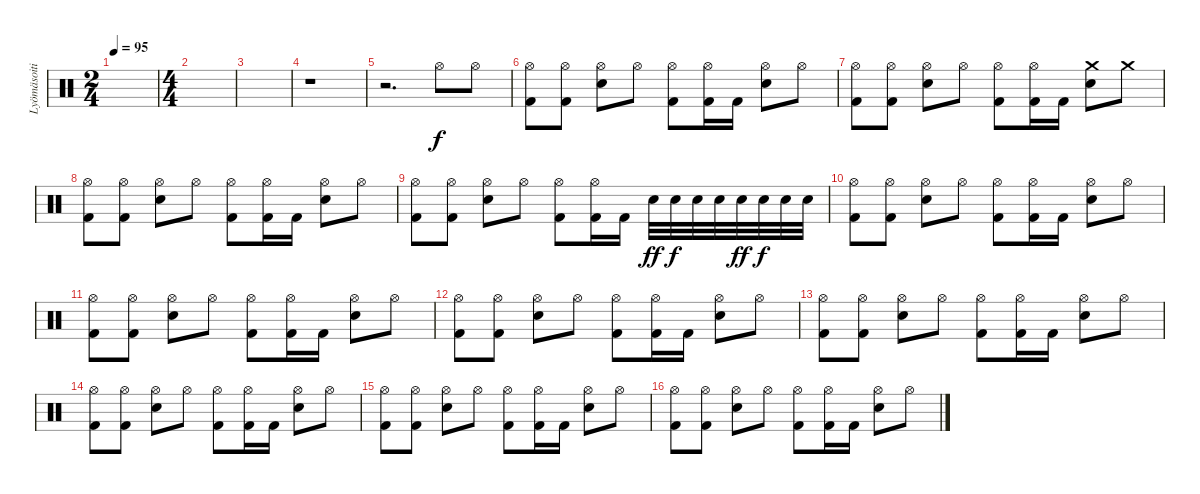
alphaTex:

\track ("Lyömäsoitin" "Lyömäsoiti") {instrument percussion}
\staff {score}
\articulation defaults
\ts (2 4)
\tempo 95
\clef neutral
\ks c
|
\ts (4 4)
|
|
r.1 |
r.2{d} "Hi-Hat (open)".8 "Hi-Hat (open)".8 |
("Hi-Hat (open)" "Kick (hit) 2").8 ("Hi-Hat (open)" "Kick (hit) 2").8 ("Hi-Hat (open)" "Electric Snare (hit)").8 "Hi-Hat (open)".8 ("Hi-Hat (open)" "Kick (hit) 2").8 ("Hi-Hat (open)" "Kick (hit) 2").16 "Kick (hit) 2".16 ("Hi-Hat (open)" "Electric Snare (hit)").8 "Hi-Hat (open)".8 |
("Hi-Hat (open)" "Kick (hit) 2").8 ("Hi-Hat (open)" "Kick (hit) 2").8 ("Hi-Hat (open)" "Electric Snare (hit)").8 "Hi-Hat (open)".8 ("Hi-Hat (open)" "Kick (hit) 2").8 ("Hi-Hat (open)" "Kick (hit) 2").16 "Kick (hit) 2".16 ("Crash medium (hit)" "Electric Snare (hit)").8 "Crash medium (hit)".8 |
("Hi-Hat (open)" "Kick (hit) 2").8 ("Hi-Hat (open)" "Kick (hit) 2").8 ("Hi-Hat (open)" "Electric Snare (hit)").8 "Hi-Hat (open)".8 ("Hi-Hat (open)" "Kick (hit) 2").8 ("Hi-Hat (open)" "Kick (hit) 2").16 "Kick (hit) 2".16 ("Hi-Hat (open)" "Electric Snare (hit)").8 "Hi-Hat (open)".8 |
("Hi-Hat (open)" "Kick (hit) 2").8 ("Hi-Hat (open)" "Kick (hit) 2").8 ("Hi-Hat (open)" "Electric Snare (hit)").8 "Hi-Hat (open)".8 ("Hi-Hat (open)" "Kick (hit) 2").8 ("Hi-Hat (open)" "Kick (hit) 2").16 "Kick (hit) 2".16 "Electric Snare (hit)".32{dy ff} "Electric Snare (hit)".32{dy f} "Electric Snare (hit)".32 "Electric Snare (hit)".32 "Electric Snare (hit)".32{dy ff} "Electric Snare (hit)".32{dy f} "Electric Snare (hit)".32 "Electric Snare (hit)".32 |
("Hi-Hat (open)" "Kick (hit) 2").8 ("Hi-Hat (open)" "Kick (hit) 2").8 ("Hi-Hat (open)" "Electric Snare (hit)").8 "Hi-Hat (open)".8 ("Hi-Hat (open)" "Kick (hit) 2").8 ("Hi-Hat (open)" "Kick (hit) 2").16 "Kick (hit) 2".16 ("Hi-Hat (open)" "Electric Snare (hit)").8 "Hi-Hat (open)".8 |
("Hi-Hat (open)" "Kick (hit) 2").8 ("Hi-Hat (open)" "Kick (hit) 2").8 ("Hi-Hat (open)" "Electric Snare (hit)").8 "Hi-Hat (open)".8 ("Hi-Hat (open)" "Kick (hit) 2").8 ("Hi-Hat (open)" "Kick (hit) 2").16 "Kick (hit) 2".16 ("Hi-Hat (open)" "Electric Snare (hit)").8 "Hi-Hat (open)".8 |
("Hi-Hat (open)" "Kick (hit) 2").8 ("Hi-Hat (open)" "Kick (hit) 2").8 ("Hi-Hat (open)" "Electric Snare (hit)").8 "Hi-Hat (open)".8 ("Hi-Hat (open)" "Kick (hit) 2").8 ("Hi-Hat (open)" "Kick (hit) 2").16 "Kick (hit) 2".16 ("Hi-Hat (open)" "Electric Snare (hit)").8 "Hi-Hat (open)".8 |
("Hi-Hat (open)" "Kick (hit) 2").8 ("Hi-Hat (open)" "Kick (hit) 2").8 ("Hi-Hat (open)" "Electric Snare (hit)").8 "Hi-Hat (open)".8 ("Hi-Hat (open)" "Kick (hit) 2").8 ("Hi-Hat (open)" "Kick (hit) 2").16 "Kick (hit) 2".16 ("Hi-Hat (open)" "Electric Snare (hit)").8 "Hi-Hat (open)".8 |
("Hi-Hat (open)" "Kick (hit) 2").8 ("Hi-Hat (open)" "Kick (hit) 2").8 ("Hi-Hat (open)" "Electric Snare (hit)").8 "Hi-Hat (open)".8 ("Hi-Hat (open)" "Kick (hit) 2").8 ("Hi-Hat (open)" "Kick (hit) 2").16 "Kick (hit) 2".16 ("Hi-Hat (open)" "Electric Snare (hit)").8 "Hi-Hat (open)".8 |
("Hi-Hat (open)" "Kick (hit) 2").8 ("Hi-Hat (open)" "Kick (hit) 2").8 ("Hi-Hat (open)" "Electric Snare (hit)").8 "Hi-Hat (open)".8 ("Hi-Hat (open)" "Kick (hit) 2").8 ("Hi-Hat (open)" "Kick (hit) 2").16 "Kick (hit) 2".16 ("Hi-Hat (open)" "Electric Snare (hit)").8 "Hi-Hat (open)".8 |
("Hi-Hat (open)" "Kick (hit) 2").8 ("Hi-Hat (open)" "Kick (hit) 2").8 ("Hi-Hat (open)" "Electric Snare (hit)").8 "Hi-Hat (open)".8 ("Hi-Hat (open)" "Kick (hit) 2").8 ("Hi-Hat (open)" "Kick (hit) 2").16 "Kick (hit) 2".16 ("Hi-Hat (open)" "Electric Snare (hit)").8 "Hi-Hat (open)".8
